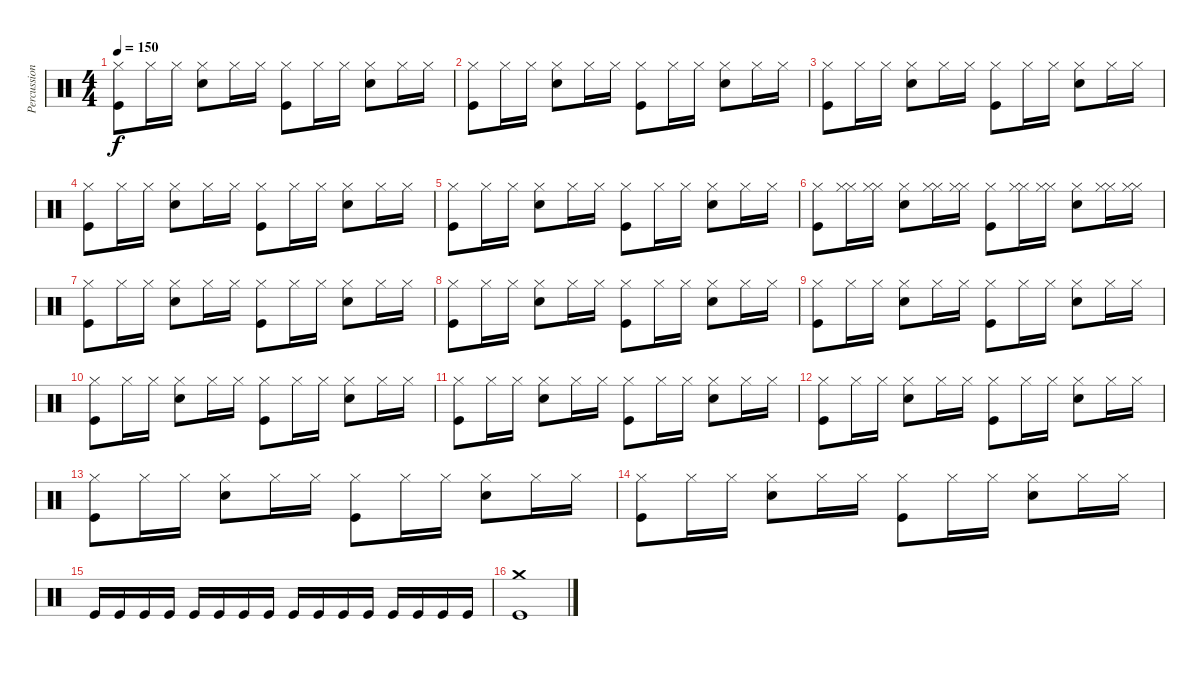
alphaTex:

\track ("Percussions" "Percussion") {instrument percussion}
\staff {score}
\articulation defaults
\ts (4 4)
\tempo 150
\clef neutral
\ks c
("Hi-Hat (closed)" "Kick (hit)").8{dy f} "Hi-Hat (closed)".16 "Hi-Hat (closed)".16 ("Electric Snare (hit)" "Hi-Hat (closed)").8 "Hi-Hat (closed)".16 "Hi-Hat (closed)".16 ("Hi-Hat (closed)" "Kick (hit)").8 "Hi-Hat (closed)".16 "Hi-Hat (closed)".16 ("Electric Snare (hit)" "Hi-Hat (closed)").8 "Hi-Hat (closed)".16 "Hi-Hat (closed)".16 |
("Hi-Hat (closed)" "Kick (hit)").8 "Hi-Hat (closed)".16 "Hi-Hat (closed)".16 ("Electric Snare (hit)" "Hi-Hat (closed)").8 "Hi-Hat (closed)".16 "Hi-Hat (closed)".16 ("Hi-Hat (closed)" "Kick (hit)").8 "Hi-Hat (closed)".16 "Hi-Hat (closed)".16 ("Electric Snare (hit)" "Hi-Hat (closed)").8 "Hi-Hat (closed)".16 "Hi-Hat (closed)".16 |
("Hi-Hat (closed)" "Kick (hit)").8 "Hi-Hat (closed)".16 "Hi-Hat (closed)".16 ("Electric Snare (hit)" "Hi-Hat (closed)").8 "Hi-Hat (closed)".16 "Hi-Hat (closed)".16 ("Hi-Hat (closed)" "Kick (hit)").8 "Hi-Hat (closed)".16 "Hi-Hat (closed)".16 ("Electric Snare (hit)" "Hi-Hat (closed)").8 "Hi-Hat (closed)".16 "Hi-Hat (closed)".16 |
("Hi-Hat (closed)" "Kick (hit)").8 "Hi-Hat (closed)".16 "Hi-Hat (closed)".16 ("Electric Snare (hit)" "Hi-Hat (closed)").8 "Hi-Hat (closed)".16 "Hi-Hat (closed)".16 ("Hi-Hat (closed)" "Kick (hit)").8 "Hi-Hat (closed)".16 "Hi-Hat (closed)".16 ("Electric Snare (hit)" "Hi-Hat (closed)").8 "Hi-Hat (closed)".16 "Hi-Hat (closed)".16 |
("Hi-Hat (closed)" "Kick (hit)").8 "Hi-Hat (closed)".16 "Hi-Hat (closed)".16 ("Electric Snare (hit)" "Hi-Hat (closed)").8 "Hi-Hat (closed)".16 "Hi-Hat (closed)".16 ("Hi-Hat (closed)" "Kick (hit)").8 "Hi-Hat (closed)".16 "Hi-Hat (closed)".16 ("Electric Snare (hit)" "Hi-Hat (closed)").8 "Hi-Hat (closed)".16 "Hi-Hat (closed)".16 |
("Hi-Hat (closed)" "Kick (hit)").8 ("Hi-Hat (closed)" "Hi-Hat (closed)").16 ("Hi-Hat (closed)" "Hi-Hat (closed)").16 ("Electric Snare (hit)" "Hi-Hat (closed)").8 ("Hi-Hat (closed)" "Hi-Hat (closed)").16 ("Hi-Hat (closed)" "Hi-Hat (closed)").16 ("Hi-Hat (closed)" "Kick (hit)").8 ("Hi-Hat (closed)" "Hi-Hat (closed)").16 ("Hi-Hat (closed)" "Hi-Hat (closed)").16 ("Electric Snare (hit)" "Hi-Hat (closed)").8 ("Hi-Hat (closed)" "Hi-Hat (closed)").16 ("Hi-Hat (closed)" "Hi-Hat (closed)").16 |
("Hi-Hat (closed)" "Kick (hit)").8 "Hi-Hat (closed)".16 "Hi-Hat (closed)".16 ("Electric Snare (hit)" "Hi-Hat (closed)").8 "Hi-Hat (closed)".16 "Hi-Hat (closed)".16 ("Hi-Hat (closed)" "Kick (hit)").8 "Hi-Hat (closed)".16 "Hi-Hat (closed)".16 ("Electric Snare (hit)" "Hi-Hat (closed)").8 "Hi-Hat (closed)".16 "Hi-Hat (closed)".16 |
("Hi-Hat (closed)" "Kick (hit)").8 "Hi-Hat (closed)".16 "Hi-Hat (closed)".16 ("Electric Snare (hit)" "Hi-Hat (closed)").8 "Hi-Hat (closed)".16 "Hi-Hat (closed)".16 ("Hi-Hat (closed)" "Kick (hit)").8 "Hi-Hat (closed)".16 "Hi-Hat (closed)".16 ("Electric Snare (hit)" "Hi-Hat (closed)").8 "Hi-Hat (closed)".16 "Hi-Hat (closed)".16 |
("Hi-Hat (closed)" "Kick (hit)").8 "Hi-Hat (closed)".16 "Hi-Hat (closed)".16 ("Electric Snare (hit)" "Hi-Hat (closed)").8 "Hi-Hat (closed)".16 "Hi-Hat (closed)".16 ("Hi-Hat (closed)" "Kick (hit)").8 "Hi-Hat (closed)".16 "Hi-Hat (closed)".16 ("Electric Snare (hit)" "Hi-Hat (closed)").8 "Hi-Hat (closed)".16 "Hi-Hat (closed)".16 |
("Hi-Hat (closed)" "Kick (hit)").8 "Hi-Hat (closed)".16 "Hi-Hat (closed)".16 ("Electric Snare (hit)" "Hi-Hat (closed)").8 "Hi-Hat (closed)".16 "Hi-Hat (closed)".16 ("Hi-Hat (closed)" "Kick (hit)").8 "Hi-Hat (closed)".16 "Hi-Hat (closed)".16 ("Electric Snare (hit)" "Hi-Hat (closed)").8 "Hi-Hat (closed)".16 "Hi-Hat (closed)".16 |
("Hi-Hat (closed)" "Kick (hit)").8 "Hi-Hat (closed)".16 "Hi-Hat (closed)".16 ("Electric Snare (hit)" "Hi-Hat (closed)").8 "Hi-Hat (closed)".16 "Hi-Hat (closed)".16 ("Hi-Hat (closed)" "Kick (hit)").8 "Hi-Hat (closed)".16 "Hi-Hat (closed)".16 ("Electric Snare (hit)" "Hi-Hat (closed)").8 "Hi-Hat (closed)".16 "Hi-Hat (closed)".16 |
("Hi-Hat (closed)" "Kick (hit)").8 "Hi-Hat (closed)".16 "Hi-Hat (closed)".16 ("Electric Snare (hit)" "Hi-Hat (closed)").8 "Hi-Hat (closed)".16 "Hi-Hat (closed)".16 ("Hi-Hat (closed)" "Kick (hit)").8 "Hi-Hat (closed)".16 "Hi-Hat (closed)".16 ("Electric Snare (hit)" "Hi-Hat (closed)").8 "Hi-Hat (closed)".16 "Hi-Hat (closed)".16 |
("Hi-Hat (closed)" "Kick (hit)").8 "Hi-Hat (closed)".16 "Hi-Hat (closed)".16 ("Electric Snare (hit)" "Hi-Hat (closed)").8 "Hi-Hat (closed)".16 "Hi-Hat (closed)".16 ("Hi-Hat (closed)" "Kick (hit)").8 "Hi-Hat (closed)".16 "Hi-Hat (closed)".16 ("Electric Snare (hit)" "Hi-Hat (closed)").8 "Hi-Hat (closed)".16 "Hi-Hat (closed)".16 |
("Hi-Hat (closed)" "Kick (hit)").8 "Hi-Hat (closed)".16 "Hi-Hat (closed)".16 ("Electric Snare (hit)" "Hi-Hat (closed)").8 "Hi-Hat (closed)".16 "Hi-Hat (closed)".16 ("Hi-Hat (closed)" "Kick (hit)").8 "Hi-Hat (closed)".16 "Hi-Hat (closed)".16 ("Electric Snare (hit)" "Hi-Hat (closed)").8 "Hi-Hat (closed)".16 "Hi-Hat (closed)".16 |
"Kick (hit)".16 "Kick (hit)".16 "Kick (hit)".16 "Kick (hit)".16 "Kick (hit)".16 "Kick (hit)".16 "Kick (hit)".16 "Kick (hit)".16 "Kick (hit)".16 "Kick (hit)".16 "Kick (hit)".16 "Kick (hit)".16 "Kick (hit)".16 "Kick (hit)".16 "Kick (hit)".16 "Kick (hit)".16 |
("Crash medium (hit)" "Kick (hit)").1
